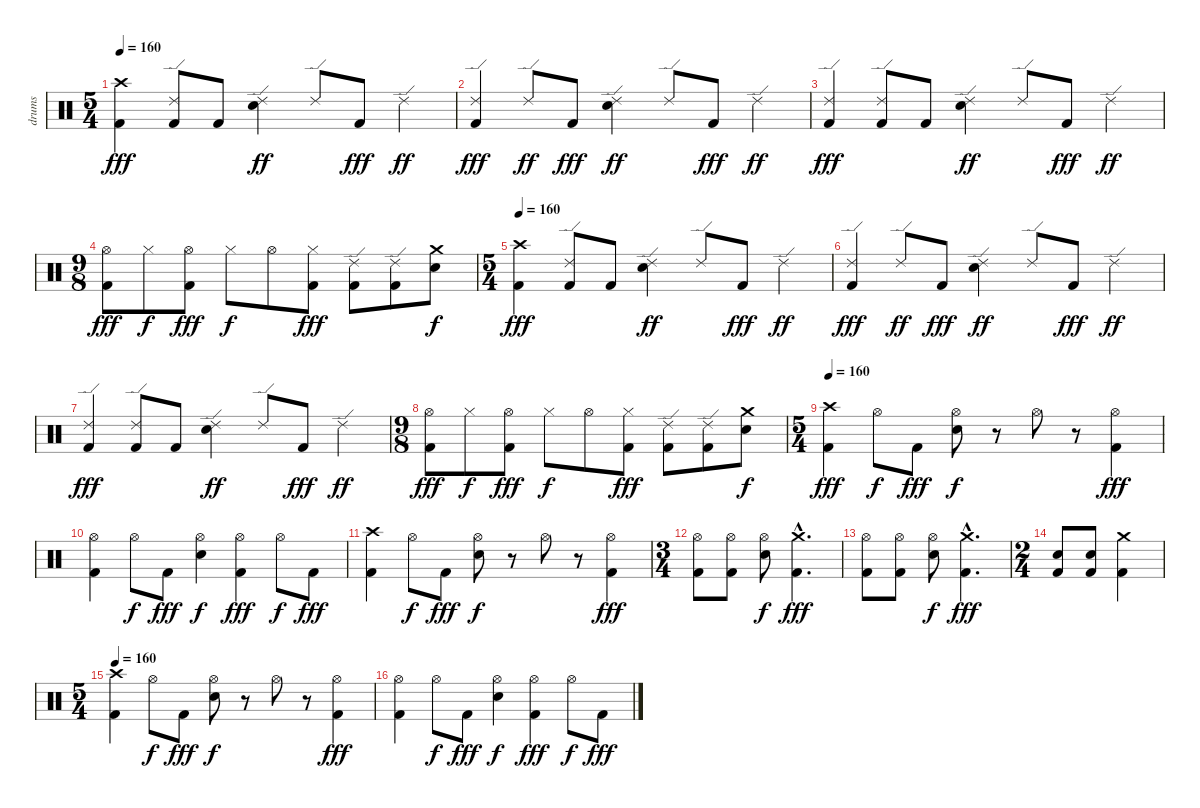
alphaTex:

\track ("drums" "drums") {instrument percussion}
\staff {score}
\articulation defaults
\ts (5 4)
\tempo 160
\clef neutral
\ks c
("Crash high (hit)" "Kick (hit) 2").4{dy fff} ("Ride (edge) 2" "Kick (hit) 2").8 "Kick (hit) 2".8 ("Ride (edge) 2" "Snare (hit) 2").4{dy ff} "Ride (edge) 2".8 "Kick (hit) 2".8{dy fff} "Ride (edge) 2".4{dy ff} |
("Ride (edge) 2" "Kick (hit) 2").4{dy fff} "Ride (edge) 2".8{dy ff} "Kick (hit) 2".8{dy fff} ("Ride (edge) 2" "Snare (hit) 2").4{dy ff} "Ride (edge) 2".8 "Kick (hit) 2".8{dy fff} "Ride (edge) 2".4{dy ff} |
("Ride (edge) 2" "Kick (hit) 2").4{dy fff} ("Ride (edge) 2" "Kick (hit) 2").8 "Kick (hit) 2".8 ("Ride (edge) 2" "Snare (hit) 2").4{dy ff} "Ride (edge) 2".8 "Kick (hit) 2".8{dy fff} "Ride (edge) 2".4{dy ff} |
\ts (9 8)
("Hi-Hat (open)" "Kick (hit) 2").8{dy fff} "Hi-Hat (closed)".8{dy f} ("Hi-Hat (open)" "Kick (hit) 2").8{dy fff} "Hi-Hat (closed)".8{dy f} "Hi-Hat (open)".8 ("Hi-Hat (closed)" "Kick (hit) 2").8{dy fff} ("Ride (edge) 2" "Kick (hit) 2").8 ("Ride (edge) 2" "Kick (hit) 2").8 ("Crash medium (hit)" "Snare (hit) 2").8{dy f} |
\ts (5 4)
\tempo 160
("Crash high (hit)" "Kick (hit) 2").4{dy fff} ("Ride (edge) 2" "Kick (hit) 2").8 "Kick (hit) 2".8 ("Ride (edge) 2" "Snare (hit) 2").4{dy ff} "Ride (edge) 2".8 "Kick (hit) 2".8{dy fff} "Ride (edge) 2".4{dy ff} |
("Ride (edge) 2" "Kick (hit) 2").4{dy fff} "Ride (edge) 2".8{dy ff} "Kick (hit) 2".8{dy fff} ("Ride (edge) 2" "Snare (hit) 2").4{dy ff} "Ride (edge) 2".8 "Kick (hit) 2".8{dy fff} "Ride (edge) 2".4{dy ff} |
("Ride (edge) 2" "Kick (hit) 2").4{dy fff} ("Ride (edge) 2" "Kick (hit) 2").8 "Kick (hit) 2".8 ("Ride (edge) 2" "Snare (hit) 2").4{dy ff} "Ride (edge) 2".8 "Kick (hit) 2".8{dy fff} "Ride (edge) 2".4{dy ff} |
\ts (9 8)
("Hi-Hat (open)" "Kick (hit) 2").8{dy fff} "Hi-Hat (closed)".8{dy f} ("Hi-Hat (open)" "Kick (hit) 2").8{dy fff} "Hi-Hat (closed)".8{dy f} "Hi-Hat (open)".8 ("Hi-Hat (closed)" "Kick (hit) 2").8{dy fff} ("Ride (edge) 2" "Kick (hit) 2").8 ("Ride (edge) 2" "Kick (hit) 2").8 ("Crash medium (hit)" "Snare (hit) 2").8{dy f} |
\ts (5 4)
\tempo 160
("Crash high (hit)" "Kick (hit) 2").4{dy fff} "Hi-Hat (open)".8{dy f} "Kick (hit) 2".8{dy fff} ("Hi-Hat (open)" "Snare (hit) 2").8{dy f} r.8 "Hi-Hat (open)".8 r.8 ("Hi-Hat (open)" "Kick (hit) 2").4{dy fff} |
("Hi-Hat (open)" "Kick (hit) 2").4 "Hi-Hat (open)".8{dy f} "Kick (hit) 2".8{dy fff} ("Hi-Hat (open)" "Snare (hit) 2").4{dy f} ("Hi-Hat (open)" "Kick (hit) 2").4{dy fff} "Hi-Hat (open)".8{dy f} "Kick (hit) 2".8{dy fff} |
("Crash high (hit)" "Kick (hit) 2").4 "Hi-Hat (open)".8{dy f} "Kick (hit) 2".8{dy fff} ("Hi-Hat (open)" "Snare (hit) 2").8{dy f} r.8 "Hi-Hat (open)".8 r.8 ("Hi-Hat (open)" "Kick (hit) 2").4{dy fff} |
\ts (3 4)
("Hi-Hat (open)" "Kick (hit) 2").8 ("Hi-Hat (open)" "Kick (hit) 2").8 ("Hi-Hat (open)" "Snare (hit) 2").8{dy f} ("Crash medium (hit)"{hac} "Kick (hit) 2"{hac}).4{d dy fff} |
("Hi-Hat (open)" "Kick (hit) 2").8 ("Hi-Hat (open)" "Kick (hit) 2").8 ("Hi-Hat (open)" "Snare (hit) 2").8{dy f} ("Crash medium (hit)"{hac} "Kick (hit) 2"{hac}).4{d dy fff} |
\ts (2 4)
("Snare (hit) 2" "Kick (hit) 2").8 ("Snare (hit) 2" "Kick (hit) 2").8 ("Crash medium (hit)" "Kick (hit) 2").4 |
\ts (5 4)
\tempo 160
("Crash high (hit)" "Kick (hit) 2").4 "Hi-Hat (open)".8{dy f} "Kick (hit) 2".8{dy fff} ("Hi-Hat (open)" "Snare (hit) 2").8{dy f} r.8 "Hi-Hat (open)".8 r.8 ("Hi-Hat (open)" "Kick (hit) 2").4{dy fff} |
("Hi-Hat (open)" "Kick (hit) 2").4 "Hi-Hat (open)".8{dy f} "Kick (hit) 2".8{dy fff} ("Hi-Hat (open)" "Snare (hit) 2").4{dy f} ("Hi-Hat (open)" "Kick (hit) 2").4{dy fff} "Hi-Hat (open)".8{dy f} "Kick (hit) 2".8{dy fff}
